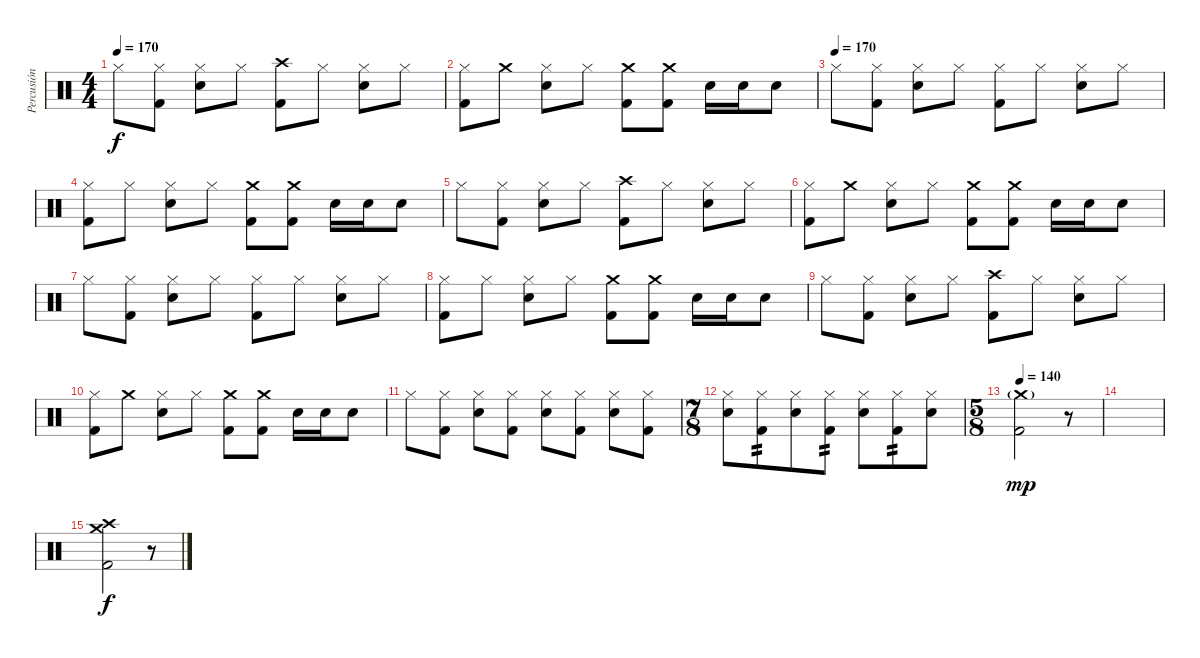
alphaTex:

\track ("Percusión" "Percusión") {instrument percussion}
\staff {score}
\articulation defaults
\ts (4 4)
\tempo 170
\clef neutral
\ks c "Hi-Hat (closed)".8{dy f}
("Hi-Hat (closed)" "Kick (hit) 2").8 ("Hi-Hat (closed)" "Electric Snare (hit)").8 "Hi-Hat (closed)".8 ("Crash high (hit)" "Kick (hit) 2").8 "Hi-Hat (closed)".8 ("Hi-Hat (closed)" "Electric Snare (hit)").8 "Hi-Hat (closed)".8 |
("Hi-Hat (closed)" "Kick (hit) 2").8 "Crash medium (hit)".8 ("Hi-Hat (closed)" "Electric Snare (hit)").8 "Hi-Hat (closed)".8 ("Crash medium (hit)" "Kick (hit) 2").8 ("Crash medium (hit)" "Kick (hit) 2").8 "Electric Snare (hit)".16 "Electric Snare (hit)".16 "Electric Snare (hit)".8 |
\tempo (170)
"Hi-Hat (closed)".8 ("Hi-Hat (closed)" "Kick (hit) 2").8 ("Hi-Hat (closed)" "Electric Snare (hit)").8 "Hi-Hat (closed)".8 ("Hi-Hat (closed)" "Kick (hit) 2").8 "Hi-Hat (closed)".8 ("Hi-Hat (closed)" "Electric Snare (hit)").8 "Hi-Hat (closed)".8 |
("Hi-Hat (closed)" "Kick (hit) 2").8 "Hi-Hat (closed)".8 ("Hi-Hat (closed)" "Electric Snare (hit)").8 "Hi-Hat (closed)".8 ("Crash medium (hit)" "Kick (hit) 2").8 ("Crash medium (hit)" "Kick (hit) 2").8 "Electric Snare (hit)".16 "Electric Snare (hit)".16 "Electric Snare (hit)".8 |
"Hi-Hat (closed)".8 ("Hi-Hat (closed)" "Kick (hit) 2").8 ("Hi-Hat (closed)" "Electric Snare (hit)").8 "Hi-Hat (closed)".8 ("Crash high (hit)" "Kick (hit) 2").8 "Hi-Hat (closed)".8 ("Hi-Hat (closed)" "Electric Snare (hit)").8 "Hi-Hat (closed)".8 |
("Hi-Hat (closed)" "Kick (hit) 2").8 "Crash medium (hit)".8 ("Hi-Hat (closed)" "Electric Snare (hit)").8 "Hi-Hat (closed)".8 ("Crash medium (hit)" "Kick (hit) 2").8 ("Crash medium (hit)" "Kick (hit) 2").8 "Electric Snare (hit)".16 "Electric Snare (hit)".16 "Electric Snare (hit)".8 |
"Hi-Hat (closed)".8 ("Hi-Hat (closed)" "Kick (hit) 2").8 ("Hi-Hat (closed)" "Electric Snare (hit)").8 "Hi-Hat (closed)".8 ("Hi-Hat (closed)" "Kick (hit) 2").8 "Hi-Hat (closed)".8 ("Hi-Hat (closed)" "Electric Snare (hit)").8 "Hi-Hat (closed)".8 |
("Hi-Hat (closed)" "Kick (hit) 2").8 "Hi-Hat (closed)".8 ("Hi-Hat (closed)" "Electric Snare (hit)").8 "Hi-Hat (closed)".8 ("Crash medium (hit)" "Kick (hit) 2").8 ("Crash medium (hit)" "Kick (hit) 2").8 "Electric Snare (hit)".16 "Electric Snare (hit)".16 "Electric Snare (hit)".8 |
"Hi-Hat (closed)".8 ("Hi-Hat (closed)" "Kick (hit) 2").8 ("Hi-Hat (closed)" "Electric Snare (hit)").8 "Hi-Hat (closed)".8 ("Crash high (hit)" "Kick (hit) 2").8 "Hi-Hat (closed)".8 ("Hi-Hat (closed)" "Electric Snare (hit)").8 "Hi-Hat (closed)".8 |
("Hi-Hat (closed)" "Kick (hit) 2").8 "Crash medium (hit)".8 ("Hi-Hat (closed)" "Electric Snare (hit)").8 "Hi-Hat (closed)".8 ("Crash medium (hit)" "Kick (hit) 2").8 ("Crash medium (hit)" "Kick (hit) 2").8 "Electric Snare (hit)".16 "Electric Snare (hit)".16 "Electric Snare (hit)".8 |
"Hi-Hat (closed)".8 ("Hi-Hat (closed)" "Kick (hit) 2").8 ("Hi-Hat (closed)" "Electric Snare (hit)").8 ("Hi-Hat (closed)" "Kick (hit) 2").8 ("Hi-Hat (closed)" "Electric Snare (hit)").8 ("Hi-Hat (closed)" "Kick (hit) 2").8 ("Hi-Hat (closed)" "Electric Snare (hit)").8 ("Hi-Hat (closed)" "Kick (hit) 2").8 |
\ts (7 8)
("Hi-Hat (closed)" "Electric Snare (hit)").8 ("Hi-Hat (closed)" "Kick (hit) 2").8{tp 2} ("Hi-Hat (closed)" "Electric Snare (hit)").8 ("Hi-Hat (closed)" "Kick (hit) 2").8{tp 2} ("Hi-Hat (closed)" "Electric Snare (hit)").8 ("Hi-Hat (closed)" "Kick (hit) 2").8{tp 2} ("Hi-Hat (closed)" "Electric Snare (hit)").8 |
\ts (5 8)
\tempo 140
("Crash medium (hit)"{g} "Kick (hit) 2").2{dy mp} r.8 |
|
("Crash medium (hit)" "Crash high (hit)" "Kick (hit) 2").2{dy f} r.8
